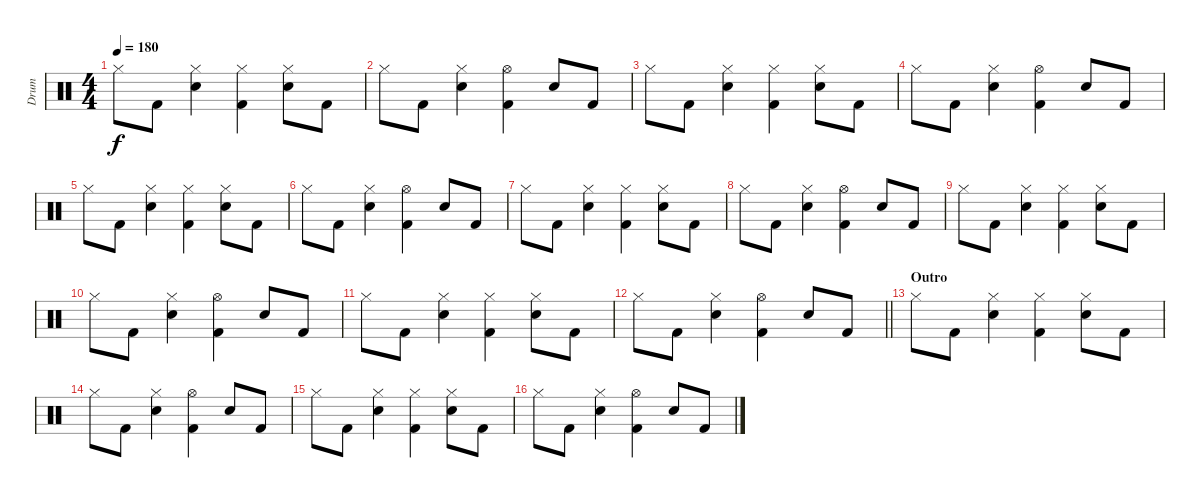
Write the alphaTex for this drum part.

\track ("Drum" "Drum") {instrument percussion}
\staff {score}
\articulation defaults
\ts (4 4)
\tempo 180
\clef neutral
\ks c "Hi-Hat (closed)".8{dy f} "Kick (hit) 2".8
("Hi-Hat (closed)" "Snare (hit) 2").4 ("Hi-Hat (closed)" "Kick (hit) 2").4 ("Hi-Hat (closed)" "Snare (hit) 2").8 "Kick (hit) 2".8 |
"Hi-Hat (closed)".8 "Kick (hit) 2".8 ("Hi-Hat (closed)" "Snare (hit) 2").4 ("Hi-Hat (open)" "Kick (hit) 2").4 "Snare (hit) 2".8 "Kick (hit) 2".8 |
"Hi-Hat (closed)".8 "Kick (hit) 2".8 ("Hi-Hat (closed)" "Snare (hit) 2").4 ("Hi-Hat (closed)" "Kick (hit) 2").4 ("Hi-Hat (closed)" "Snare (hit) 2").8 "Kick (hit) 2".8 |
"Hi-Hat (closed)".8 "Kick (hit) 2".8 ("Hi-Hat (closed)" "Snare (hit) 2").4 ("Hi-Hat (open)" "Kick (hit) 2").4 "Snare (hit) 2".8 "Kick (hit) 2".8 |
"Hi-Hat (closed)".8 "Kick (hit) 2".8 ("Hi-Hat (closed)" "Snare (hit) 2").4 ("Hi-Hat (closed)" "Kick (hit) 2").4 ("Hi-Hat (closed)" "Snare (hit) 2").8 "Kick (hit) 2".8 |
"Hi-Hat (closed)".8 "Kick (hit) 2".8 ("Hi-Hat (closed)" "Snare (hit) 2").4 ("Hi-Hat (open)" "Kick (hit) 2").4 "Snare (hit) 2".8 "Kick (hit) 2".8 |
"Hi-Hat (closed)".8 "Kick (hit) 2".8 ("Hi-Hat (closed)" "Snare (hit) 2").4 ("Hi-Hat (closed)" "Kick (hit) 2").4 ("Hi-Hat (closed)" "Snare (hit) 2").8 "Kick (hit) 2".8 |
"Hi-Hat (closed)".8 "Kick (hit) 2".8 ("Hi-Hat (closed)" "Snare (hit) 2").4 ("Hi-Hat (open)" "Kick (hit) 2").4 "Snare (hit) 2".8 "Kick (hit) 2".8 |
"Hi-Hat (closed)".8 "Kick (hit) 2".8 ("Hi-Hat (closed)" "Snare (hit) 2").4 ("Hi-Hat (closed)" "Kick (hit) 2").4 ("Hi-Hat (closed)" "Snare (hit) 2").8 "Kick (hit) 2".8 |
"Hi-Hat (closed)".8 "Kick (hit) 2".8 ("Hi-Hat (closed)" "Snare (hit) 2").4 ("Hi-Hat (open)" "Kick (hit) 2").4 "Snare (hit) 2".8 "Kick (hit) 2".8 |
"Hi-Hat (closed)".8 "Kick (hit) 2".8 ("Hi-Hat (closed)" "Snare (hit) 2").4 ("Hi-Hat (closed)" "Kick (hit) 2").4 ("Hi-Hat (closed)" "Snare (hit) 2").8 "Kick (hit) 2".8 |
\barLineRight lightlight "Hi-Hat (closed)".8 "Kick (hit) 2".8
("Hi-Hat (closed)" "Snare (hit) 2").4 ("Hi-Hat (open)" "Kick (hit) 2").4 "Snare (hit) 2".8 "Kick (hit) 2".8 |
\section ("" "Outro")
"Hi-Hat (closed)".8 "Kick (hit) 2".8 ("Hi-Hat (closed)" "Snare (hit) 2").4 ("Hi-Hat (closed)" "Kick (hit) 2").4 ("Hi-Hat (closed)" "Snare (hit) 2").8 "Kick (hit) 2".8 |
"Hi-Hat (closed)".8 "Kick (hit) 2".8 ("Hi-Hat (closed)" "Snare (hit) 2").4 ("Hi-Hat (open)" "Kick (hit) 2").4 "Snare (hit) 2".8 "Kick (hit) 2".8 |
"Hi-Hat (closed)".8 "Kick (hit) 2".8 ("Hi-Hat (closed)" "Snare (hit) 2").4 ("Hi-Hat (closed)" "Kick (hit) 2").4 ("Hi-Hat (closed)" "Snare (hit) 2").8 "Kick (hit) 2".8 |
"Hi-Hat (closed)".8 "Kick (hit) 2".8 ("Hi-Hat (closed)" "Snare (hit) 2").4 ("Hi-Hat (open)" "Kick (hit) 2").4 "Snare (hit) 2".8 "Kick (hit) 2".8
